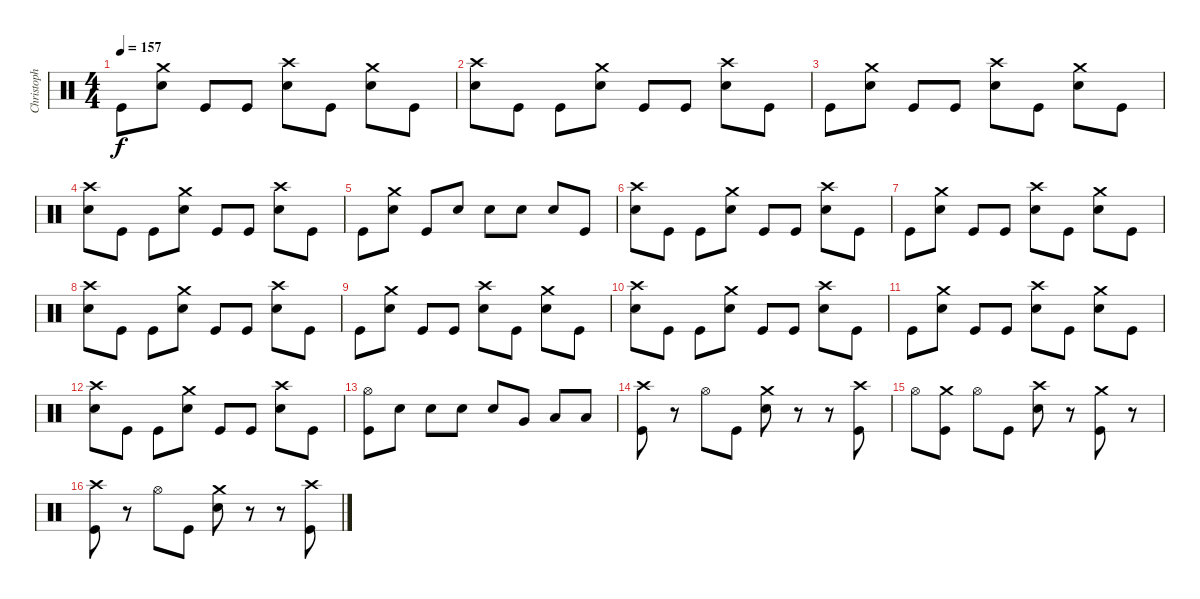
\track ("Christoph" "Christoph") {instrument percussion}
\staff {score}
\articulation defaults
\ts (4 4)
\tempo 157
\clef neutral
\ks c "Kick (hit)".8{dy f}
("Crash medium (hit)" "Snare (hit) 2").8 "Kick (hit)".8 "Kick (hit)".8 ("Crash high (hit)" "Snare (hit) 2").8 "Kick (hit)".8 ("Crash medium (hit)" "Snare (hit) 2").8 "Kick (hit)".8 |
("Crash high (hit)" "Snare (hit) 2").8 "Kick (hit)".8 "Kick (hit)".8 ("Crash medium (hit)" "Snare (hit) 2").8 "Kick (hit)".8 "Kick (hit)".8 ("Crash high (hit)" "Snare (hit) 2").8 "Kick (hit)".8 |
"Kick (hit)".8 ("Crash medium (hit)" "Snare (hit) 2").8 "Kick (hit)".8 "Kick (hit)".8 ("Crash high (hit)" "Snare (hit) 2").8 "Kick (hit)".8 ("Crash medium (hit)" "Snare (hit) 2").8 "Kick (hit)".8 |
("Crash high (hit)" "Snare (hit) 2").8 "Kick (hit)".8 "Kick (hit)".8 ("Crash medium (hit)" "Snare (hit) 2").8 "Kick (hit)".8 "Kick (hit)".8 ("Crash high (hit)" "Snare (hit) 2").8 "Kick (hit)".8 |
"Kick (hit)".8 ("Crash medium (hit)" "Snare (hit) 2").8 "Kick (hit)".8 "Snare (hit) 2".8 "Snare (hit) 2".8 "Snare (hit) 2".8 "Snare (hit) 2".8 "Kick (hit)".8 |
("Crash high (hit)" "Snare (hit) 2").8 "Kick (hit)".8 "Kick (hit)".8 ("Crash medium (hit)" "Snare (hit) 2").8 "Kick (hit)".8 "Kick (hit)".8 ("Crash high (hit)" "Snare (hit) 2").8 "Kick (hit)".8 |
"Kick (hit)".8 ("Crash medium (hit)" "Snare (hit) 2").8 "Kick (hit)".8 "Kick (hit)".8 ("Crash high (hit)" "Snare (hit) 2").8 "Kick (hit)".8 ("Crash medium (hit)" "Snare (hit) 2").8 "Kick (hit)".8 |
("Crash high (hit)" "Snare (hit) 2").8 "Kick (hit)".8 "Kick (hit)".8 ("Crash medium (hit)" "Snare (hit) 2").8 "Kick (hit)".8 "Kick (hit)".8 ("Crash high (hit)" "Snare (hit) 2").8 "Kick (hit)".8 |
"Kick (hit)".8 ("Crash medium (hit)" "Snare (hit) 2").8 "Kick (hit)".8 "Kick (hit)".8 ("Crash high (hit)" "Snare (hit) 2").8 "Kick (hit)".8 ("Crash medium (hit)" "Snare (hit) 2").8 "Kick (hit)".8 |
("Crash high (hit)" "Snare (hit) 2").8 "Kick (hit)".8 "Kick (hit)".8 ("Crash medium (hit)" "Snare (hit) 2").8 "Kick (hit)".8 "Kick (hit)".8 ("Crash high (hit)" "Snare (hit) 2").8 "Kick (hit)".8 |
"Kick (hit)".8 ("Crash medium (hit)" "Snare (hit) 2").8 "Kick (hit)".8 "Kick (hit)".8 ("Crash high (hit)" "Snare (hit) 2").8 "Kick (hit)".8 ("Crash medium (hit)" "Snare (hit) 2").8 "Kick (hit)".8 |
("Crash high (hit)" "Snare (hit) 2").8 "Kick (hit)".8 "Kick (hit)".8 ("Crash medium (hit)" "Snare (hit) 2").8 "Kick (hit)".8 "Kick (hit)".8 ("Crash high (hit)" "Snare (hit) 2").8 "Kick (hit)".8 |
("Hi-Hat (open)" "Kick (hit)").8 "Snare (hit) 2".8 "Snare (hit) 2".8 "Snare (hit) 2".8 "Snare (hit) 2".8 "Very Low Tom (hit)".8 "Low Floor Tom (hit)".8 "Low Tom (hit)".8 |
("Crash high (hit)" "Kick (hit)").8 r.8 "Hi-Hat (open)".8 "Kick (hit)".8 ("Crash medium (hit)" "Snare (hit) 2").8 r.8 r.8 ("Crash high (hit)" "Kick (hit)").8 |
"Hi-Hat (open)".8 ("Crash medium (hit)" "Kick (hit)").8 "Hi-Hat (open)".8 "Kick (hit)".8 ("Crash high (hit)" "Snare (hit) 2").8 r.8 ("Crash medium (hit)" "Kick (hit)").8 r.8 |
("Crash high (hit)" "Kick (hit)").8 r.8 "Hi-Hat (open)".8 "Kick (hit)".8 ("Crash medium (hit)" "Snare (hit) 2").8 r.8 r.8 ("Crash high (hit)" "Kick (hit)").8
